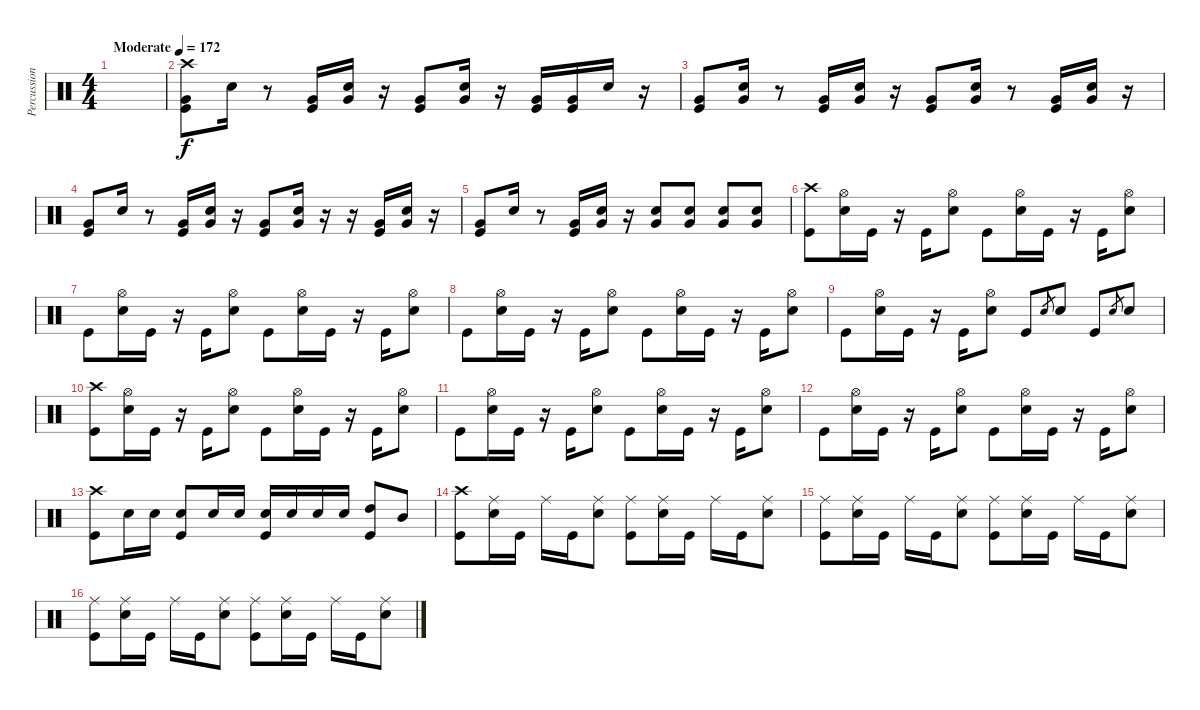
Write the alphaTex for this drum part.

\track ("Percussion" "Percussion") {instrument percussion}
\staff {score}
\articulation defaults
\ts (4 4)
\tempo (172 "Moderate")
\clef neutral
\ks c
|
("Crash high (hit)" "Very Low Tom (hit)" "Kick (hit)").8 "Snare (hit) 2".16 r.8 ("Very Low Tom (hit)" "Kick (hit)").16 ("Very Low Tom (hit)" "Snare (hit) 2").16 r.16 ("Very Low Tom (hit)" "Kick (hit)").8 ("Very Low Tom (hit)" "Snare (hit) 2").16 r.16 ("Very Low Tom (hit)" "Kick (hit)").16 ("Very Low Tom (hit)" "Kick (hit)").16 "Snare (hit) 2".16 r.16 |
("Very Low Tom (hit)" "Kick (hit)").8 ("Very Low Tom (hit)" "Snare (hit) 2").16 r.8 ("Very Low Tom (hit)" "Kick (hit)").16 ("Very Low Tom (hit)" "Snare (hit) 2").16 r.16 ("Very Low Tom (hit)" "Kick (hit)").8 ("Very Low Tom (hit)" "Snare (hit) 2").16 r.8 ("Very Low Tom (hit)" "Kick (hit)").16 ("Very Low Tom (hit)" "Snare (hit) 2").16 r.16 |
("Very Low Tom (hit)" "Kick (hit)").8 "Snare (hit) 2".16 r.8 ("Very Low Tom (hit)" "Kick (hit)").16 ("Very Low Tom (hit)" "Snare (hit) 2").16 r.16 ("Very Low Tom (hit)" "Kick (hit)").8 ("Very Low Tom (hit)" "Snare (hit) 2").16 r.16 r.16 ("Very Low Tom (hit)" "Kick (hit)").16 ("Snare (hit) 2" "Very Low Tom (hit)").16 r.16 |
("Very Low Tom (hit)" "Kick (hit)").8 "Snare (hit) 2".16 r.8 ("Very Low Tom (hit)" "Kick (hit)").16 ("Very Low Tom (hit)" "Snare (hit) 2").16 r.16 ("Snare (hit) 2" "Very Low Tom (hit)").8 ("Snare (hit) 2" "Very Low Tom (hit)").8 ("Snare (hit) 2" "Very Low Tom (hit)").8 ("Snare (hit) 2" "Very Low Tom (hit)").8 |
("Crash high (hit)" "Kick (hit)").8 ("Hi-Hat (open)" "Snare (hit) 2").16 "Kick (hit)".16 r.16 "Kick (hit)".16 ("Hi-Hat (open)" "Snare (hit) 2").8 "Kick (hit)".8 ("Hi-Hat (open)" "Snare (hit) 2").16 "Kick (hit)".16 r.16 "Kick (hit)".16 ("Hi-Hat (open)" "Snare (hit) 2").8 |
"Kick (hit)".8 ("Hi-Hat (open)" "Snare (hit) 2").16 "Kick (hit)".16 r.16 "Kick (hit)".16 ("Hi-Hat (open)" "Snare (hit) 2").8 "Kick (hit)".8 ("Hi-Hat (open)" "Snare (hit) 2").16 "Kick (hit)".16 r.16 "Kick (hit)".16 ("Hi-Hat (open)" "Snare (hit) 2").8 |
"Kick (hit)".8 ("Hi-Hat (open)" "Snare (hit) 2").16 "Kick (hit)".16 r.16 "Kick (hit)".16 ("Hi-Hat (open)" "Snare (hit) 2").8 "Kick (hit)".8 ("Hi-Hat (open)" "Snare (hit) 2").16 "Kick (hit)".16 r.16 "Kick (hit)".16 ("Hi-Hat (open)" "Snare (hit) 2").8 |
"Kick (hit)".8 ("Hi-Hat (open)" "Snare (hit) 2").16 "Kick (hit)".16 r.16 "Kick (hit)".16 ("Hi-Hat (open)" "Snare (hit) 2").8 "Kick (hit)".8 "Snare (hit) 2".8{gr} "Snare (hit) 2".8 "Kick (hit)".8 "Snare (hit) 2".8{gr} "Snare (hit) 2".8 |
("Crash high (hit)" "Kick (hit)").8 ("Hi-Hat (open)" "Snare (hit) 2").16 "Kick (hit)".16 r.16 "Kick (hit)".16 ("Hi-Hat (open)" "Snare (hit) 2").8 "Kick (hit)".8 ("Hi-Hat (open)" "Snare (hit) 2").16 "Kick (hit)".16 r.16 "Kick (hit)".16 ("Hi-Hat (open)" "Snare (hit) 2").8 |
"Kick (hit)".8 ("Hi-Hat (open)" "Snare (hit) 2").16 "Kick (hit)".16 r.16 "Kick (hit)".16 ("Hi-Hat (open)" "Snare (hit) 2").8 "Kick (hit)".8 ("Hi-Hat (open)" "Snare (hit) 2").16 "Kick (hit)".16 r.16 "Kick (hit)".16 ("Hi-Hat (open)" "Snare (hit) 2").8 |
"Kick (hit)".8 ("Hi-Hat (open)" "Snare (hit) 2").16 "Kick (hit)".16 r.16 "Kick (hit)".16 ("Hi-Hat (open)" "Snare (hit) 2").8 "Kick (hit)".8 ("Hi-Hat (open)" "Snare (hit) 2").16 "Kick (hit)".16 r.16 "Kick (hit)".16 ("Hi-Hat (open)" "Snare (hit) 2").8 |
("Crash high (hit)" "Kick (hit)").8 "Snare (hit) 2".16 "Snare (hit) 2".16 ("Snare (hit) 2" "Kick (hit)").8 "Snare (hit) 2".16 "Snare (hit) 2".16 ("Snare (hit) 2" "Kick (hit)").16 "Snare (hit) 2".16 "Snare (hit) 2".16 "Snare (hit) 2".16 ("High Tom (hit)" "Kick (hit)").8 "Mid Tom (hit)".8 |
("Crash high (hit)" "Kick (hit)").8 ("Ride (middle)" "Snare (hit) 2").16 "Kick (hit)".16 "Ride (middle)".16 "Kick (hit)".16 ("Ride (middle)" "Snare (hit) 2").8 ("Ride (middle)" "Kick (hit)").8 ("Ride (middle)" "Snare (hit) 2").16 "Kick (hit)".16 "Ride (middle)".16 "Kick (hit)".16 ("Ride (middle)" "Snare (hit) 2").8 |
("Ride (middle)" "Kick (hit)").8 ("Ride (middle)" "Snare (hit) 2").16 "Kick (hit)".16 "Ride (middle)".16 "Kick (hit)".16 ("Ride (middle)" "Snare (hit) 2").8 ("Ride (middle)" "Kick (hit)").8 ("Ride (middle)" "Snare (hit) 2").16 "Kick (hit)".16 "Ride (middle)".16 "Kick (hit)".16 ("Ride (middle)" "Snare (hit) 2").8 |
("Ride (middle)" "Kick (hit)").8 ("Ride (middle)" "Snare (hit) 2").16 "Kick (hit)".16 "Ride (middle)".16 "Kick (hit)".16 ("Ride (middle)" "Snare (hit) 2").8 ("Ride (middle)" "Kick (hit)").8 ("Ride (middle)" "Snare (hit) 2").16 "Kick (hit)".16 "Ride (middle)".16 "Kick (hit)".16 ("Ride (middle)" "Snare (hit) 2").8
